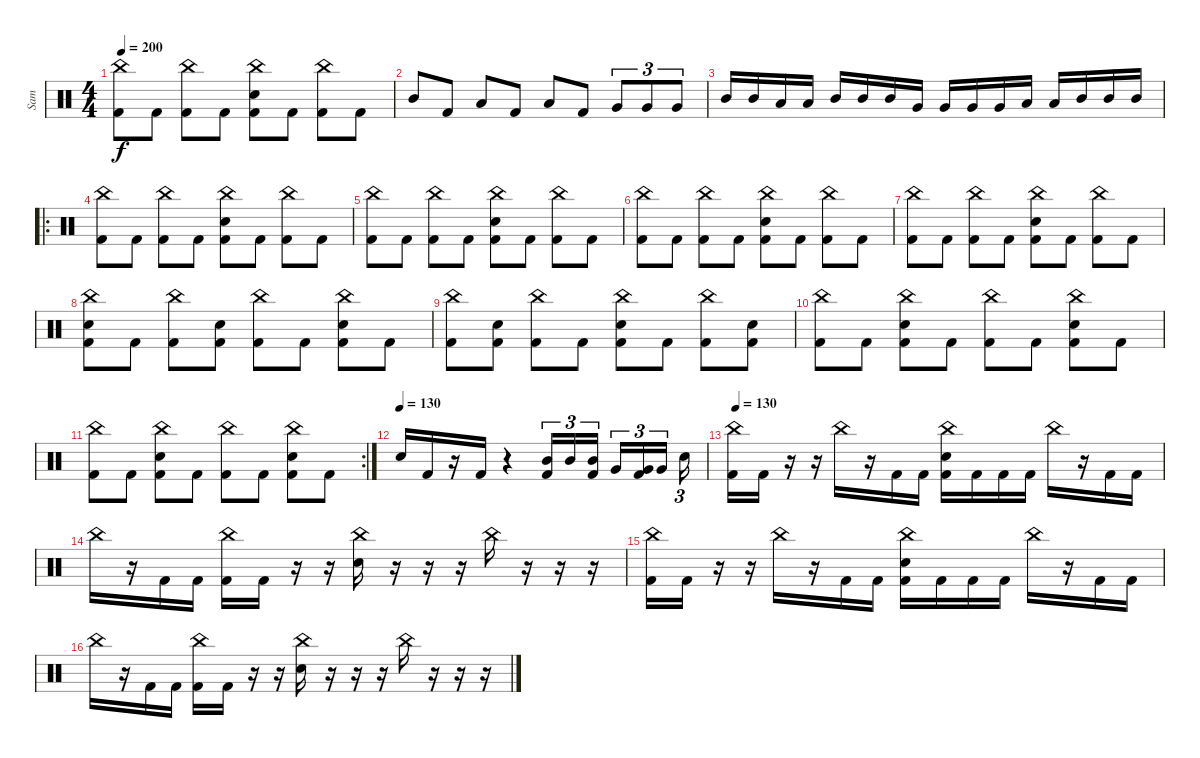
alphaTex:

\track ("Sam" "Sam") {instrument percussion}
\staff {score}
\articulation defaults
\ts (4 4)
\tempo 200
\clef neutral
\ks c
("China (hit)" "Kick (hit) 2").8{dy f} "Kick (hit) 2".8 ("China (hit)" "Kick (hit) 2").8 "Kick (hit) 2".8 ("China (hit)" "Snare (hit) 2" "Kick (hit) 2").8 "Kick (hit) 2".8 ("China (hit)" "Kick (hit) 2").8 "Kick (hit) 2".8 |
"Mid Tom (hit)".8 "Kick (hit) 2".8 "Low Tom (hit)".8 "Kick (hit) 2".8 "Low Tom (hit)".8 "Kick (hit) 2".8 "Very Low Tom (hit)".8{tu (3 2)} "Very Low Tom (hit)".8{tu (3 2)} "Very Low Tom (hit)".8{tu (3 2)} |
"Mid Tom (hit)".16 "Mid Tom (hit)".16 "Low Tom (hit)".16 "Low Tom (hit)".16 "Mid Tom (hit)".16 "Mid Tom (hit)".16 "Mid Tom (hit)".16 "Very Low Tom (hit)".16 "Very Low Tom (hit)".16 "Very Low Tom (hit)".16 "Very Low Tom (hit)".16 "Low Tom (hit)".16 "Low Tom (hit)".16 "Mid Tom (hit)".16 "Mid Tom (hit)".16 "Mid Tom (hit)".16 |
\ro
("China (hit)" "Kick (hit) 2").8 "Kick (hit) 2".8 ("China (hit)" "Kick (hit) 2").8 "Kick (hit) 2".8 ("China (hit)" "Snare (hit) 2" "Kick (hit) 2").8 "Kick (hit) 2".8 ("China (hit)" "Kick (hit) 2").8 "Kick (hit) 2".8 |
("China (hit)" "Kick (hit) 2").8 "Kick (hit) 2".8 ("China (hit)" "Kick (hit) 2").8 "Kick (hit) 2".8 ("China (hit)" "Snare (hit) 2" "Kick (hit) 2").8 "Kick (hit) 2".8 ("China (hit)" "Kick (hit) 2").8 "Kick (hit) 2".8 |
("China (hit)" "Kick (hit) 2").8 "Kick (hit) 2".8 ("China (hit)" "Kick (hit) 2").8 "Kick (hit) 2".8 ("China (hit)" "Snare (hit) 2" "Kick (hit) 2").8 "Kick (hit) 2".8 ("China (hit)" "Kick (hit) 2").8 "Kick (hit) 2".8 |
("China (hit)" "Kick (hit) 2").8 "Kick (hit) 2".8 ("China (hit)" "Kick (hit) 2").8 "Kick (hit) 2".8 ("China (hit)" "Snare (hit) 2" "Kick (hit) 2").8 "Kick (hit) 2".8 ("China (hit)" "Kick (hit) 2").8 "Kick (hit) 2".8 |
("China (hit)" "Snare (hit) 2" "Kick (hit) 2").8 "Kick (hit) 2".8 ("China (hit)" "Kick (hit) 2").8 ("Snare (hit) 2" "Kick (hit) 2").8 ("China (hit)" "Kick (hit) 2").8 "Kick (hit) 2".8 ("China (hit)" "Snare (hit) 2" "Kick (hit) 2").8 "Kick (hit) 2".8 |
("China (hit)" "Kick (hit) 2").8 ("Snare (hit) 2" "Kick (hit) 2").8 ("China (hit)" "Kick (hit) 2").8 "Kick (hit) 2".8 ("China (hit)" "Snare (hit) 2" "Kick (hit) 2").8 "Kick (hit) 2".8 ("China (hit)" "Kick (hit) 2").8 ("Snare (hit) 2" "Kick (hit) 2").8 |
("China (hit)" "Kick (hit) 2").8 "Kick (hit) 2".8 ("China (hit)" "Snare (hit) 2" "Kick (hit) 2").8 "Kick (hit) 2".8 ("China (hit)" "Kick (hit) 2").8 "Kick (hit) 2".8 ("China (hit)" "Snare (hit) 2" "Kick (hit) 2").8 "Kick (hit) 2".8 |
\rc 2
("China (hit)" "Kick (hit) 2").8 "Kick (hit) 2".8 ("China (hit)" "Snare (hit) 2" "Kick (hit) 2").8 "Kick (hit) 2".8 ("China (hit)" "Kick (hit) 2").8 "Kick (hit) 2".8 ("China (hit)" "Snare (hit) 2" "Kick (hit) 2").8 "Kick (hit) 2".8 |
\tempo (130)
"Snare (hit) 2".16 "Kick (hit) 2".16 r.16 "Kick (hit) 2".16 r.4 ("Mid Tom (hit)" "Kick (hit) 2").16{tu (3 2)} "Mid Tom (hit)".16{tu (3 2)} ("Mid Tom (hit)" "Kick (hit) 2").16{tu (3 2) beam splitsecondary} "Very Low Tom (hit)".16{tu (3 2)} ("Very Low Tom (hit)" "Kick (hit) 2").16{tu (3 2)} "Very Low Tom (hit)".16{tu (3 2)} "Snare (hit) 2".16{tu (3 2)} |
\tempo 130
("China (hit)" "Kick (hit) 2").16 "Kick (hit) 2".16 r.16 r.16 "China (hit)".16 r.16 "Kick (hit) 2".16 "Kick (hit) 2".16 ("China (hit)" "Snare (hit) 2" "Kick (hit) 2").16 "Kick (hit) 2".16 "Kick (hit) 2".16 "Kick (hit) 2".16 "China (hit)".16 r.16 "Kick (hit) 2".16 "Kick (hit) 2".16 |
"China (hit)".16 r.16 "Kick (hit) 2".16 "Kick (hit) 2".16 ("China (hit)" "Kick (hit) 2").16 "Kick (hit) 2".16 r.16 r.16 ("China (hit)" "Snare (hit) 2").16 r.16 r.16 r.16 "China (hit)".16 r.16 r.16 r.16 |
("China (hit)" "Kick (hit) 2").16 "Kick (hit) 2".16 r.16 r.16 "China (hit)".16 r.16 "Kick (hit) 2".16 "Kick (hit) 2".16 ("China (hit)" "Snare (hit) 2" "Kick (hit) 2").16 "Kick (hit) 2".16 "Kick (hit) 2".16 "Kick (hit) 2".16 "China (hit)".16 r.16 "Kick (hit) 2".16 "Kick (hit) 2".16 |
"China (hit)".16 r.16 "Kick (hit) 2".16 "Kick (hit) 2".16 ("China (hit)" "Kick (hit) 2").16 "Kick (hit) 2".16 r.16 r.16 ("China (hit)" "Snare (hit) 2").16 r.16 r.16 r.16 "China (hit)".16 r.16 r.16 r.16
